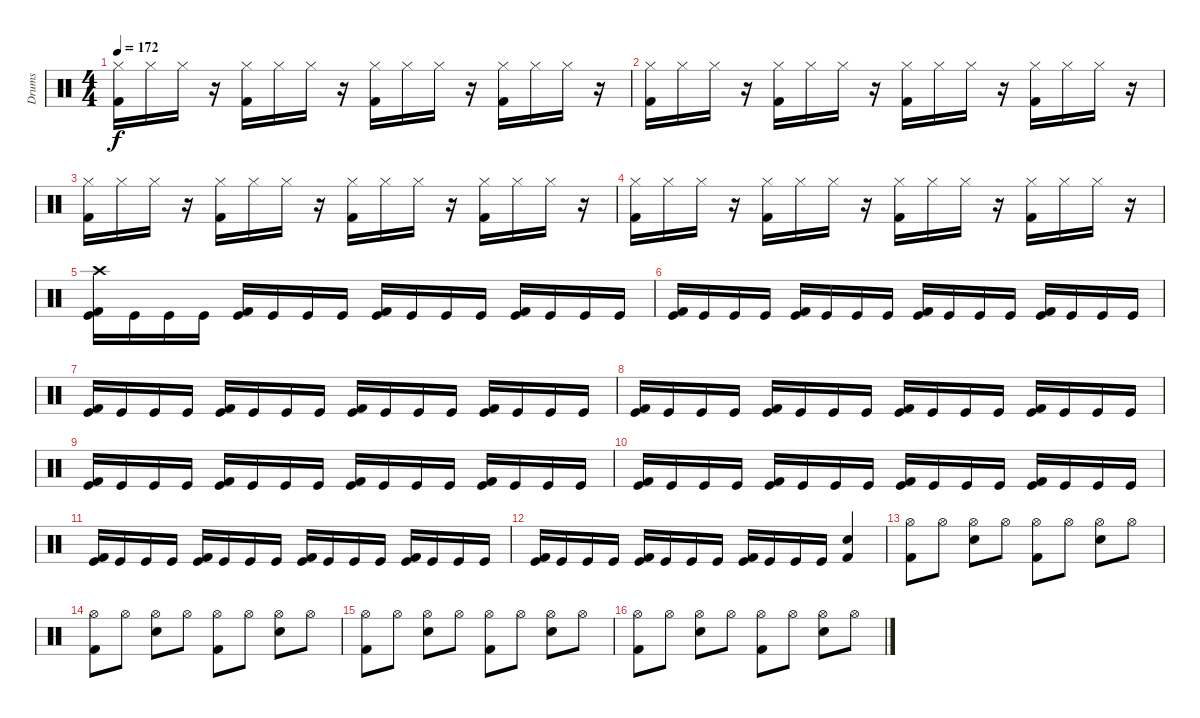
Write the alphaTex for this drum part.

\track ("Drums" "Drums") {instrument percussion}
\staff {score}
\articulation defaults
\ts (4 4)
\tempo 172
\clef neutral
\ks c
("Kick (hit) 2" "Hi-Hat (closed)").16{dy f} "Hi-Hat (closed)".16 "Hi-Hat (closed)".16 r.16 ("Kick (hit) 2" "Hi-Hat (closed)").16 "Hi-Hat (closed)".16 "Hi-Hat (closed)".16 r.16 ("Kick (hit) 2" "Hi-Hat (closed)").16 "Hi-Hat (closed)".16 "Hi-Hat (closed)".16 r.16 ("Kick (hit) 2" "Hi-Hat (closed)").16 "Hi-Hat (closed)".16 "Hi-Hat (closed)".16 r.16 |
("Kick (hit) 2" "Hi-Hat (closed)").16 "Hi-Hat (closed)".16 "Hi-Hat (closed)".16 r.16 ("Kick (hit) 2" "Hi-Hat (closed)").16 "Hi-Hat (closed)".16 "Hi-Hat (closed)".16 r.16 ("Kick (hit) 2" "Hi-Hat (closed)").16 "Hi-Hat (closed)".16 "Hi-Hat (closed)".16 r.16 ("Kick (hit) 2" "Hi-Hat (closed)").16 "Hi-Hat (closed)".16 "Hi-Hat (closed)".16 r.16 |
("Kick (hit) 2" "Hi-Hat (closed)").16 "Hi-Hat (closed)".16 "Hi-Hat (closed)".16 r.16 ("Kick (hit) 2" "Hi-Hat (closed)").16 "Hi-Hat (closed)".16 "Hi-Hat (closed)".16 r.16 ("Kick (hit) 2" "Hi-Hat (closed)").16 "Hi-Hat (closed)".16 "Hi-Hat (closed)".16 r.16 ("Kick (hit) 2" "Hi-Hat (closed)").16 "Hi-Hat (closed)".16 "Hi-Hat (closed)".16 r.16 |
("Kick (hit) 2" "Hi-Hat (closed)").16 "Hi-Hat (closed)".16 "Hi-Hat (closed)".16 r.16 ("Kick (hit) 2" "Hi-Hat (closed)").16 "Hi-Hat (closed)".16 "Hi-Hat (closed)".16 r.16 ("Kick (hit) 2" "Hi-Hat (closed)").16 "Hi-Hat (closed)".16 "Hi-Hat (closed)".16 r.16 ("Kick (hit) 2" "Hi-Hat (closed)").16 "Hi-Hat (closed)".16 "Hi-Hat (closed)".16 r.16 |
("Kick (hit) 2" "Kick (hit)" "Crash high (hit)").16 "Kick (hit)".16 "Kick (hit)".16 "Kick (hit)".16 ("Kick (hit) 2" "Kick (hit)").16 "Kick (hit)".16 "Kick (hit)".16 "Kick (hit)".16 ("Kick (hit) 2" "Kick (hit)").16 "Kick (hit)".16 "Kick (hit)".16 "Kick (hit)".16 ("Kick (hit) 2" "Kick (hit)").16 "Kick (hit)".16 "Kick (hit)".16 "Kick (hit)".16 |
("Kick (hit) 2" "Kick (hit)").16 "Kick (hit)".16 "Kick (hit)".16 "Kick (hit)".16 ("Kick (hit) 2" "Kick (hit)").16 "Kick (hit)".16 "Kick (hit)".16 "Kick (hit)".16 ("Kick (hit) 2" "Kick (hit)").16 "Kick (hit)".16 "Kick (hit)".16 "Kick (hit)".16 ("Kick (hit) 2" "Kick (hit)").16 "Kick (hit)".16 "Kick (hit)".16 "Kick (hit)".16 |
("Kick (hit) 2" "Kick (hit)").16 "Kick (hit)".16 "Kick (hit)".16 "Kick (hit)".16 ("Kick (hit) 2" "Kick (hit)").16 "Kick (hit)".16 "Kick (hit)".16 "Kick (hit)".16 ("Kick (hit) 2" "Kick (hit)").16 "Kick (hit)".16 "Kick (hit)".16 "Kick (hit)".16 ("Kick (hit) 2" "Kick (hit)").16 "Kick (hit)".16 "Kick (hit)".16 "Kick (hit)".16 |
("Kick (hit) 2" "Kick (hit)").16 "Kick (hit)".16 "Kick (hit)".16 "Kick (hit)".16 ("Kick (hit) 2" "Kick (hit)").16 "Kick (hit)".16 "Kick (hit)".16 "Kick (hit)".16 ("Kick (hit) 2" "Kick (hit)").16 "Kick (hit)".16 "Kick (hit)".16 "Kick (hit)".16 ("Kick (hit) 2" "Kick (hit)").16 "Kick (hit)".16 "Kick (hit)".16 "Kick (hit)".16 |
("Kick (hit) 2" "Kick (hit)").16 "Kick (hit)".16 "Kick (hit)".16 "Kick (hit)".16 ("Kick (hit) 2" "Kick (hit)").16 "Kick (hit)".16 "Kick (hit)".16 "Kick (hit)".16 ("Kick (hit) 2" "Kick (hit)").16 "Kick (hit)".16 "Kick (hit)".16 "Kick (hit)".16 ("Kick (hit) 2" "Kick (hit)").16 "Kick (hit)".16 "Kick (hit)".16 "Kick (hit)".16 |
("Kick (hit) 2" "Kick (hit)").16 "Kick (hit)".16 "Kick (hit)".16 "Kick (hit)".16 ("Kick (hit) 2" "Kick (hit)").16 "Kick (hit)".16 "Kick (hit)".16 "Kick (hit)".16 ("Kick (hit) 2" "Kick (hit)").16 "Kick (hit)".16 "Kick (hit)".16 "Kick (hit)".16 ("Kick (hit) 2" "Kick (hit)").16 "Kick (hit)".16 "Kick (hit)".16 "Kick (hit)".16 |
("Kick (hit) 2" "Kick (hit)").16 "Kick (hit)".16 "Kick (hit)".16 "Kick (hit)".16 ("Kick (hit) 2" "Kick (hit)").16 "Kick (hit)".16 "Kick (hit)".16 "Kick (hit)".16 ("Kick (hit) 2" "Kick (hit)").16 "Kick (hit)".16 "Kick (hit)".16 "Kick (hit)".16 ("Kick (hit) 2" "Kick (hit)").16 "Kick (hit)".16 "Kick (hit)".16 "Kick (hit)".16 |
("Kick (hit) 2" "Kick (hit)").16 "Kick (hit)".16 "Kick (hit)".16 "Kick (hit)".16 ("Kick (hit) 2" "Kick (hit)").16 "Kick (hit)".16 "Kick (hit)".16 "Kick (hit)".16 ("Kick (hit) 2" "Kick (hit)").16 "Kick (hit)".16 "Kick (hit)".16 "Kick (hit)".16 ("Kick (hit) 2" "Electric Snare (hit)").4 |
("Kick (hit) 2" "Hi-Hat (open)").8 "Hi-Hat (open)".8 ("Electric Snare (hit)" "Hi-Hat (open)").8 "Hi-Hat (open)".8 ("Kick (hit) 2" "Hi-Hat (open)").8 "Hi-Hat (open)".8 ("Electric Snare (hit)" "Hi-Hat (open)").8 "Hi-Hat (open)".8 |
("Kick (hit) 2" "Hi-Hat (open)").8 "Hi-Hat (open)".8 ("Electric Snare (hit)" "Hi-Hat (open)").8 "Hi-Hat (open)".8 ("Kick (hit) 2" "Hi-Hat (open)").8 "Hi-Hat (open)".8 ("Electric Snare (hit)" "Hi-Hat (open)").8 "Hi-Hat (open)".8 |
("Kick (hit) 2" "Hi-Hat (open)").8 "Hi-Hat (open)".8 ("Electric Snare (hit)" "Hi-Hat (open)").8 "Hi-Hat (open)".8 ("Kick (hit) 2" "Hi-Hat (open)").8 "Hi-Hat (open)".8 ("Electric Snare (hit)" "Hi-Hat (open)").8 "Hi-Hat (open)".8 |
("Kick (hit) 2" "Hi-Hat (open)").8 "Hi-Hat (open)".8 ("Electric Snare (hit)" "Hi-Hat (open)").8 "Hi-Hat (open)".8 ("Kick (hit) 2" "Hi-Hat (open)").8 "Hi-Hat (open)".8 ("Electric Snare (hit)" "Hi-Hat (open)").8 "Hi-Hat (open)".8
